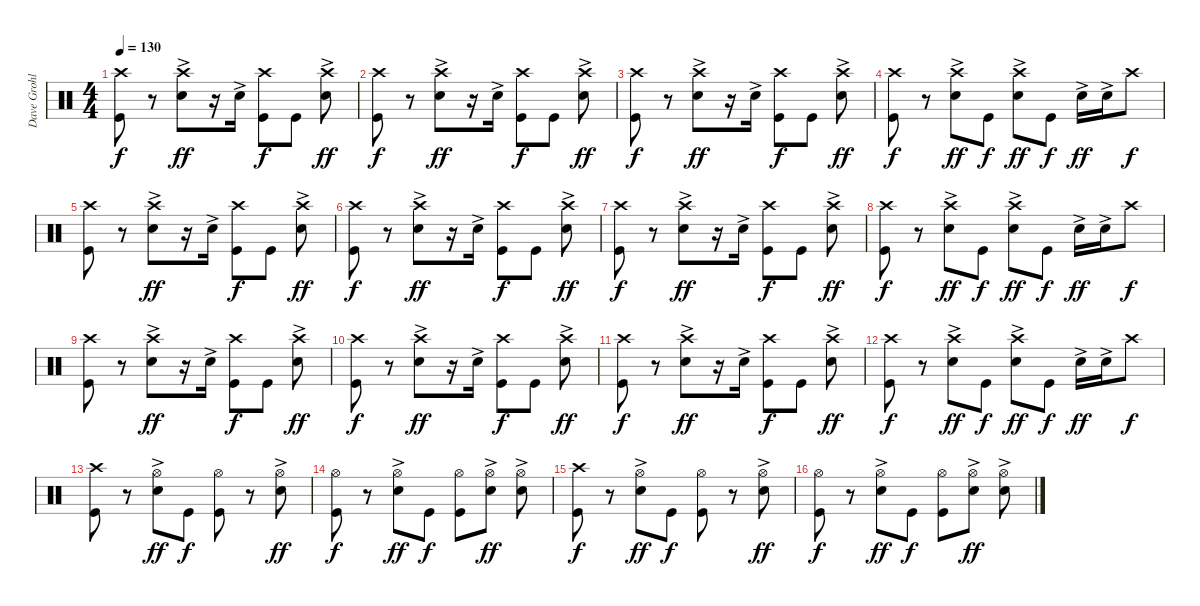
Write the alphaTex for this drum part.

\track ("Dave Grohl" "Dave Grohl") {instrument percussion}
\staff {score}
\articulation defaults
\ts (4 4)
\tempo 130
\clef neutral
\ks c
("Crash high (hit)" "Kick (hit)").8{dy f} r.8 ("Crash high (hit)" "Electric Snare (hit)"{ac}).8{dy ff} r.16 "Electric Snare (hit)"{ac}.16 ("Crash high (hit)" "Kick (hit)").8{dy f} "Kick (hit)".8 ("Crash high (hit)" "Electric Snare (hit)"{ac}).8{dy ff} |
("Crash high (hit)" "Kick (hit)").8{dy f} r.8 ("Crash high (hit)" "Electric Snare (hit)"{ac}).8{dy ff} r.16 "Electric Snare (hit)"{ac}.16 ("Crash high (hit)" "Kick (hit)").8{dy f} "Kick (hit)".8 ("Crash high (hit)" "Electric Snare (hit)"{ac}).8{dy ff} |
("Crash high (hit)" "Kick (hit)").8{dy f} r.8 ("Crash high (hit)" "Electric Snare (hit)"{ac}).8{dy ff} r.16 "Electric Snare (hit)"{ac}.16 ("Crash high (hit)" "Kick (hit)").8{dy f} "Kick (hit)".8 ("Crash high (hit)" "Electric Snare (hit)"{ac}).8{dy ff} |
("Crash high (hit)" "Kick (hit)").8{dy f} r.8 ("Crash high (hit)" "Electric Snare (hit)"{ac}).8{dy ff} "Kick (hit)".8{dy f} ("Crash high (hit)" "Electric Snare (hit)"{ac}).8{dy ff} "Kick (hit)".8{dy f} "Electric Snare (hit)"{ac}.16{dy ff} "Electric Snare (hit)"{ac}.16 "Crash high (hit)".8{dy f} |
("Crash high (hit)" "Kick (hit)").8 r.8 ("Crash high (hit)" "Electric Snare (hit)"{ac}).8{dy ff} r.16 "Electric Snare (hit)"{ac}.16 ("Crash high (hit)" "Kick (hit)").8{dy f} "Kick (hit)".8 ("Crash high (hit)" "Electric Snare (hit)"{ac}).8{dy ff} |
("Crash high (hit)" "Kick (hit)").8{dy f} r.8 ("Crash high (hit)" "Electric Snare (hit)"{ac}).8{dy ff} r.16 "Electric Snare (hit)"{ac}.16 ("Crash high (hit)" "Kick (hit)").8{dy f} "Kick (hit)".8 ("Crash high (hit)" "Electric Snare (hit)"{ac}).8{dy ff} |
("Crash high (hit)" "Kick (hit)").8{dy f} r.8 ("Crash high (hit)" "Electric Snare (hit)"{ac}).8{dy ff} r.16 "Electric Snare (hit)"{ac}.16 ("Crash high (hit)" "Kick (hit)").8{dy f} "Kick (hit)".8 ("Crash high (hit)" "Electric Snare (hit)"{ac}).8{dy ff} |
("Crash high (hit)" "Kick (hit)").8{dy f} r.8 ("Crash high (hit)" "Electric Snare (hit)"{ac}).8{dy ff} "Kick (hit)".8{dy f} ("Crash high (hit)" "Electric Snare (hit)"{ac}).8{dy ff} "Kick (hit)".8{dy f} "Electric Snare (hit)"{ac}.16{dy ff} "Electric Snare (hit)"{ac}.16 "Crash high (hit)".8{dy f} |
("Crash high (hit)" "Kick (hit)").8 r.8 ("Crash high (hit)" "Electric Snare (hit)"{ac}).8{dy ff} r.16 "Electric Snare (hit)"{ac}.16 ("Crash high (hit)" "Kick (hit)").8{dy f} "Kick (hit)".8 ("Crash high (hit)" "Electric Snare (hit)"{ac}).8{dy ff} |
("Crash high (hit)" "Kick (hit)").8{dy f} r.8 ("Crash high (hit)" "Electric Snare (hit)"{ac}).8{dy ff} r.16 "Electric Snare (hit)"{ac}.16 ("Crash high (hit)" "Kick (hit)").8{dy f} "Kick (hit)".8 ("Crash high (hit)" "Electric Snare (hit)"{ac}).8{dy ff} |
("Crash high (hit)" "Kick (hit)").8{dy f} r.8 ("Crash high (hit)" "Electric Snare (hit)"{ac}).8{dy ff} r.16 "Electric Snare (hit)"{ac}.16 ("Crash high (hit)" "Kick (hit)").8{dy f} "Kick (hit)".8 ("Crash high (hit)" "Electric Snare (hit)"{ac}).8{dy ff} |
("Crash high (hit)" "Kick (hit)").8{dy f} r.8 ("Crash high (hit)" "Electric Snare (hit)"{ac}).8{dy ff} "Kick (hit)".8{dy f} ("Crash high (hit)" "Electric Snare (hit)"{ac}).8{dy ff} "Kick (hit)".8{dy f} "Electric Snare (hit)"{ac}.16{dy ff} "Electric Snare (hit)"{ac}.16 "Crash high (hit)".8{dy f} |
("Crash high (hit)" "Kick (hit)").8 r.8 ("Hi-Hat (open)" "Electric Snare (hit)"{ac}).8{dy ff} "Kick (hit)".8{dy f} ("Hi-Hat (open)" "Kick (hit)").8 r.8 ("Hi-Hat (open)" "Electric Snare (hit)"{ac}).8{dy ff} |
("Hi-Hat (open)" "Kick (hit)").8{dy f} r.8 ("Hi-Hat (open)" "Electric Snare (hit)"{ac}).8{dy ff} "Kick (hit)".8{dy f} ("Hi-Hat (open)" "Kick (hit)").8 ("Hi-Hat (open)" "Electric Snare (hit)"{ac}).8{dy ff} ("Hi-Hat (open)" "Electric Snare (hit)"{ac}).8 |
("Crash high (hit)" "Kick (hit)").8{dy f} r.8 ("Hi-Hat (open)" "Electric Snare (hit)"{ac}).8{dy ff} "Kick (hit)".8{dy f} ("Hi-Hat (open)" "Kick (hit)").8 r.8 ("Hi-Hat (open)" "Electric Snare (hit)"{ac}).8{dy ff} |
("Hi-Hat (open)" "Kick (hit)").8{dy f} r.8 ("Hi-Hat (open)" "Electric Snare (hit)"{ac}).8{dy ff} "Kick (hit)".8{dy f} ("Hi-Hat (open)" "Kick (hit)").8 ("Hi-Hat (open)" "Electric Snare (hit)"{ac}).8{dy ff} ("Hi-Hat (open)" "Electric Snare (hit)"{ac}).8
